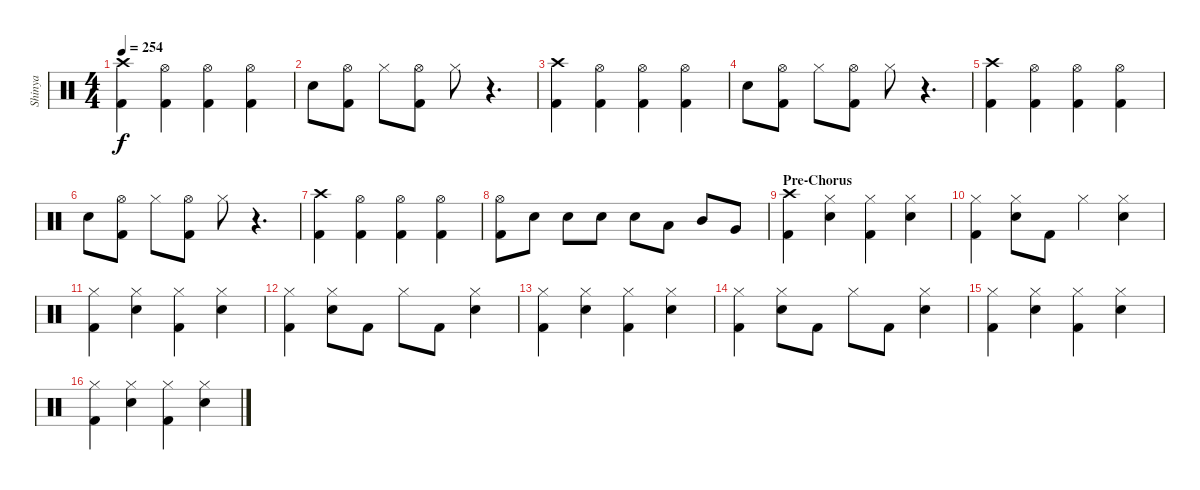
\track ("Shinya" "Shinya") {instrument percussion}
\staff {score}
\articulation defaults
\ts (4 4)
\tempo 254
\clef neutral
\ks c
("Kick (hit) 2" "Crash high (hit)").4{dy f} ("Hi-Hat (open)" "Kick (hit) 2").4 ("Hi-Hat (open)" "Kick (hit) 2").4 ("Hi-Hat (open)" "Kick (hit) 2").4 |
"Electric Snare (hit)".8 ("Hi-Hat (open)" "Kick (hit) 2").8 "Hi-Hat (closed)".8 ("Hi-Hat (open)" "Kick (hit) 2").8 "Hi-Hat (closed)".8 r.4{d} |
("Kick (hit) 2" "Crash high (hit)").4 ("Hi-Hat (open)" "Kick (hit) 2").4 ("Hi-Hat (open)" "Kick (hit) 2").4 ("Hi-Hat (open)" "Kick (hit) 2").4 |
"Electric Snare (hit)".8 ("Hi-Hat (open)" "Kick (hit) 2").8 "Hi-Hat (closed)".8 ("Hi-Hat (open)" "Kick (hit) 2").8 "Hi-Hat (closed)".8 r.4{d} |
("Kick (hit) 2" "Crash high (hit)").4 ("Hi-Hat (open)" "Kick (hit) 2").4 ("Hi-Hat (open)" "Kick (hit) 2").4 ("Hi-Hat (open)" "Kick (hit) 2").4 |
"Electric Snare (hit)".8 ("Hi-Hat (open)" "Kick (hit) 2").8 "Hi-Hat (closed)".8 ("Hi-Hat (open)" "Kick (hit) 2").8 "Hi-Hat (closed)".8 r.4{d} |
("Kick (hit) 2" "Crash high (hit)").4 ("Hi-Hat (open)" "Kick (hit) 2").4 ("Hi-Hat (open)" "Kick (hit) 2").4 ("Hi-Hat (open)" "Kick (hit) 2").4 |
("Hi-Hat (open)" "Kick (hit) 2").8 "Electric Snare (hit)".8 "Electric Snare (hit)".8 "Electric Snare (hit)".8 "Electric Snare (hit)".8 "Low Tom (hit)".8 "Mid Tom (hit)".8 "Very Low Tom (hit)".8 |
\section ("" "Pre-Chorus")
("Kick (hit) 2" "Crash high (hit)").4 ("Electric Snare (hit)" "Hi-Hat (closed)").4 ("Hi-Hat (closed)" "Kick (hit) 2").4 ("Electric Snare (hit)" "Hi-Hat (closed)").4 |
("Hi-Hat (closed)" "Kick (hit) 2").4 ("Hi-Hat (closed)" "Electric Snare (hit)").8 "Kick (hit) 2".8 "Hi-Hat (closed)".4 ("Electric Snare (hit)" "Hi-Hat (closed)").4 |
("Hi-Hat (closed)" "Kick (hit) 2").4 ("Electric Snare (hit)" "Hi-Hat (closed)").4 ("Hi-Hat (closed)" "Kick (hit) 2").4 ("Electric Snare (hit)" "Hi-Hat (closed)").4 |
("Hi-Hat (closed)" "Kick (hit) 2").4 ("Electric Snare (hit)" "Hi-Hat (closed)").8 "Kick (hit) 2".8 "Hi-Hat (closed)".8 "Kick (hit) 2".8 ("Electric Snare (hit)" "Hi-Hat (closed)").4 |
("Hi-Hat (closed)" "Kick (hit) 2").4 ("Electric Snare (hit)" "Hi-Hat (closed)").4 ("Hi-Hat (closed)" "Kick (hit) 2").4 ("Electric Snare (hit)" "Hi-Hat (closed)").4 |
("Hi-Hat (closed)" "Kick (hit) 2").4 ("Electric Snare (hit)" "Hi-Hat (closed)").8 "Kick (hit) 2".8 "Hi-Hat (closed)".8 "Kick (hit) 2".8 ("Electric Snare (hit)" "Hi-Hat (closed)").4 |
("Hi-Hat (closed)" "Kick (hit) 2").4 ("Electric Snare (hit)" "Hi-Hat (closed)").4 ("Hi-Hat (closed)" "Kick (hit) 2").4 ("Electric Snare (hit)" "Hi-Hat (closed)").4 |
("Hi-Hat (closed)" "Kick (hit) 2").4 ("Electric Snare (hit)" "Hi-Hat (closed)").4 ("Hi-Hat (closed)" "Kick (hit) 2").4 ("Electric Snare (hit)" "Hi-Hat (closed)").4
